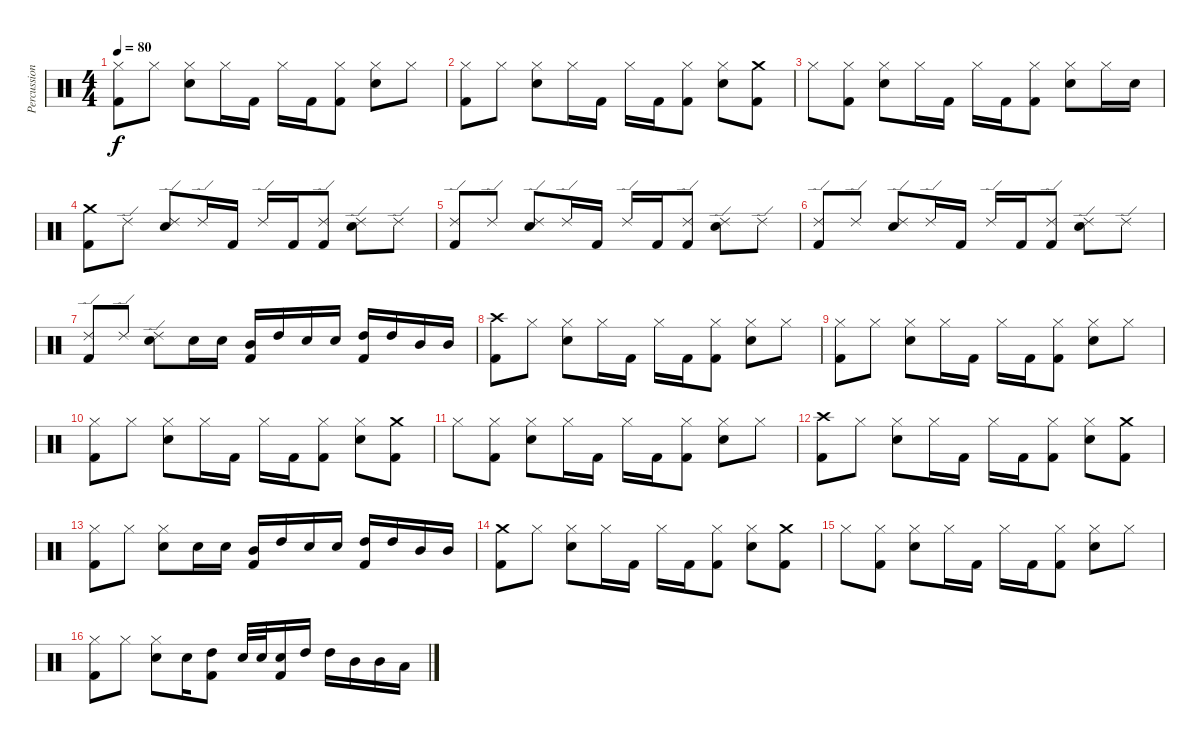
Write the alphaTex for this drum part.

\track ("Percussion" "Percussion") {instrument percussion}
\staff {score}
\articulation defaults
\ts (4 4)
\tempo 80
\clef neutral
\ks c
("Hi-Hat (closed)" "Kick (hit) 2").8{dy f} "Hi-Hat (closed)".8 ("Hi-Hat (closed)" "Snare (hit) 2").8 "Hi-Hat (closed)".16 "Kick (hit) 2".16 "Hi-Hat (closed)".16 "Kick (hit) 2".16 ("Hi-Hat (closed)" "Kick (hit) 2").8 ("Hi-Hat (closed)" "Snare (hit) 2").8 "Hi-Hat (closed)".8 |
("Hi-Hat (closed)" "Kick (hit) 2").8 "Hi-Hat (closed)".8 ("Hi-Hat (closed)" "Snare (hit) 2").8 "Hi-Hat (closed)".16 "Kick (hit) 2".16 "Hi-Hat (closed)".16 "Kick (hit) 2".16 ("Hi-Hat (closed)" "Kick (hit) 2").8 ("Hi-Hat (closed)" "Snare (hit) 2").8 ("Crash medium (hit)" "Kick (hit) 2").8 |
"Hi-Hat (closed)".8 ("Hi-Hat (closed)" "Kick (hit) 2").8 ("Hi-Hat (closed)" "Snare (hit) 2").8 "Hi-Hat (closed)".16 "Kick (hit) 2".16 "Hi-Hat (closed)".16 "Kick (hit) 2".16 ("Hi-Hat (closed)" "Kick (hit) 2").8 ("Hi-Hat (closed)" "Snare (hit) 2").8 "Hi-Hat (closed)".16 "Snare (hit) 2".16 |
("Crash medium (hit)" "Kick (hit) 2").8 "Ride (edge) 2".8 ("Ride (edge) 2" "Snare (hit) 2").8 "Ride (edge) 2".16 "Kick (hit) 2".16 "Ride (edge) 2".16 "Kick (hit) 2".16 ("Ride (edge) 2" "Kick (hit) 2").8 ("Ride (edge) 2" "Snare (hit) 2").8 "Ride (edge) 2".8 |
("Ride (edge) 2" "Kick (hit) 2").8 "Ride (edge) 2".8 ("Ride (edge) 2" "Snare (hit) 2").8 "Ride (edge) 2".16 "Kick (hit) 2".16 "Ride (edge) 2".16 "Kick (hit) 2".16 ("Ride (edge) 2" "Kick (hit) 2").8 ("Ride (edge) 2" "Snare (hit) 2").8 "Ride (edge) 2".8 |
("Ride (edge) 2" "Kick (hit) 2").8 "Ride (edge) 2".8 ("Ride (edge) 2" "Snare (hit) 2").8 "Ride (edge) 2".16 "Kick (hit) 2".16 "Ride (edge) 2".16 "Kick (hit) 2".16 ("Ride (edge) 2" "Kick (hit) 2").8 ("Ride (edge) 2" "Snare (hit) 2").8 "Ride (edge) 2".8 |
("Ride (edge) 2" "Kick (hit) 2").8 "Ride (edge) 2".8 ("Ride (edge) 2" "Snare (hit) 2").8 "Snare (hit) 2".16 "Snare (hit) 2".16 ("Mid Tom (hit)" "Kick (hit) 2").16 "High Tom (hit)".16 "Snare (hit) 2".16 "Snare (hit) 2".16 ("High Tom (hit)" "Kick (hit) 2").16 "High Tom (hit)".16 "Mid Tom (hit)".16 "Mid Tom (hit)".16 |
("Crash high (hit)" "Kick (hit) 2").8 "Hi-Hat (closed)".8 ("Hi-Hat (closed)" "Snare (hit) 2").8 "Hi-Hat (closed)".16 "Kick (hit) 2".16 "Hi-Hat (closed)".16 "Kick (hit) 2".16 ("Hi-Hat (closed)" "Kick (hit) 2").8 ("Hi-Hat (closed)" "Snare (hit) 2").8 "Hi-Hat (closed)".8 |
("Hi-Hat (closed)" "Kick (hit) 2").8 "Hi-Hat (closed)".8 ("Hi-Hat (closed)" "Snare (hit) 2").8 "Hi-Hat (closed)".16 "Kick (hit) 2".16 "Hi-Hat (closed)".16 "Kick (hit) 2".16 ("Hi-Hat (closed)" "Kick (hit) 2").8 ("Hi-Hat (closed)" "Snare (hit) 2").8 "Hi-Hat (closed)".8 |
("Hi-Hat (closed)" "Kick (hit) 2").8 "Hi-Hat (closed)".8 ("Hi-Hat (closed)" "Snare (hit) 2").8 "Hi-Hat (closed)".16 "Kick (hit) 2".16 "Hi-Hat (closed)".16 "Kick (hit) 2".16 ("Hi-Hat (closed)" "Kick (hit) 2").8 ("Hi-Hat (closed)" "Snare (hit) 2").8 ("Crash medium (hit)" "Kick (hit) 2").8 |
"Hi-Hat (closed)".8 ("Hi-Hat (closed)" "Kick (hit) 2").8 ("Hi-Hat (closed)" "Snare (hit) 2").8 "Hi-Hat (closed)".16 "Kick (hit) 2".16 "Hi-Hat (closed)".16 "Kick (hit) 2".16 ("Hi-Hat (closed)" "Kick (hit) 2").8 ("Hi-Hat (closed)" "Snare (hit) 2").8 "Hi-Hat (closed)".8 |
("Crash high (hit)" "Kick (hit) 2").8 "Hi-Hat (closed)".8 ("Hi-Hat (closed)" "Snare (hit) 2").8 "Hi-Hat (closed)".16 "Kick (hit) 2".16 "Hi-Hat (closed)".16 "Kick (hit) 2".16 ("Hi-Hat (closed)" "Kick (hit) 2").8 ("Hi-Hat (closed)" "Snare (hit) 2").8 ("Crash medium (hit)" "Kick (hit) 2").8 |
("Hi-Hat (closed)" "Kick (hit) 2").8 "Hi-Hat (closed)".8 ("Hi-Hat (closed)" "Snare (hit) 2").8 "Snare (hit) 2".16 "Snare (hit) 2".16 ("Mid Tom (hit)" "Kick (hit) 2").16 "High Tom (hit)".16 "Snare (hit) 2".16 "Snare (hit) 2".16 ("High Tom (hit)" "Kick (hit) 2").16 "High Tom (hit)".16 "Mid Tom (hit)".16 "Mid Tom (hit)".16 |
("Crash medium (hit)" "Kick (hit) 2").8 "Hi-Hat (closed)".8 ("Hi-Hat (closed)" "Snare (hit) 2").8 "Hi-Hat (closed)".16 "Kick (hit) 2".16 "Hi-Hat (closed)".16 "Kick (hit) 2".16 ("Hi-Hat (closed)" "Kick (hit) 2").8 ("Hi-Hat (closed)" "Snare (hit) 2").8 ("Crash medium (hit)" "Kick (hit) 2").8 |
"Hi-Hat (closed)".8 ("Hi-Hat (closed)" "Kick (hit) 2").8 ("Hi-Hat (closed)" "Snare (hit) 2").8 "Hi-Hat (closed)".16 "Kick (hit) 2".16 "Hi-Hat (closed)".16 "Kick (hit) 2".16 ("Hi-Hat (closed)" "Kick (hit) 2").8 ("Hi-Hat (closed)" "Snare (hit) 2").8 "Hi-Hat (closed)".8 |
("Hi-Hat (closed)" "Kick (hit) 2").8 "Hi-Hat (closed)".8 ("Hi-Hat (closed)" "Snare (hit) 2").8 "Snare (hit) 2".16 ("High Tom (hit)" "Kick (hit) 2").8 "Snare (hit) 2".32 "Snare (hit) 2".32 ("Snare (hit) 2" "Kick (hit) 2").16 "High Tom (hit)".16 "High Tom (hit)".16 "Mid Tom (hit)".16 "Mid Tom (hit)".16 "Low Tom (hit)".16
